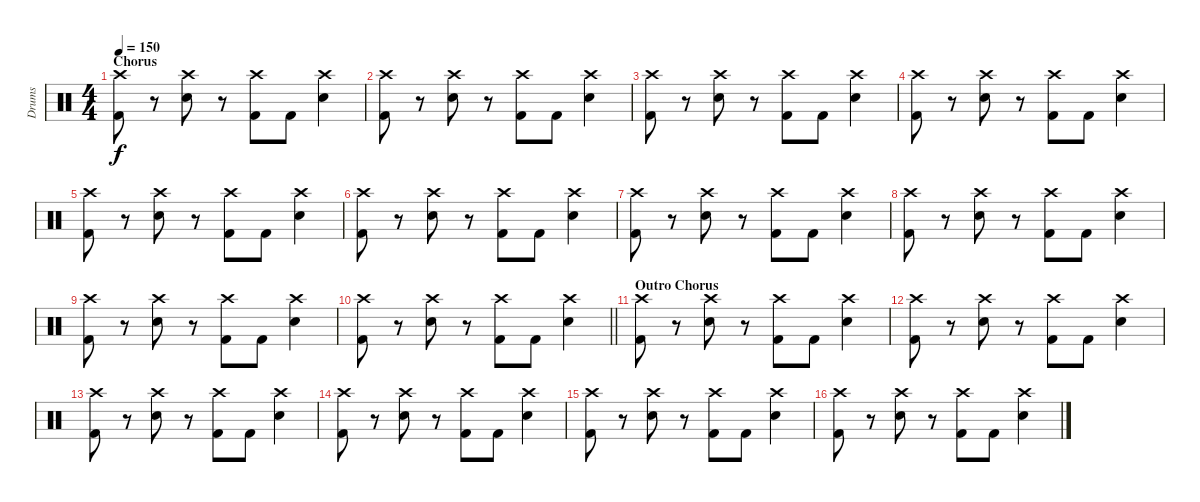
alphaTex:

\track ("Drums" "Drums") {instrument percussion}
\staff {score}
\articulation defaults
\ts (4 4)
\section ("" "Chorus")
\tempo 150
\clef neutral
\ks c
("Crash high (hit)" "Kick (hit) 2").8{dy f} r.8 ("Crash high (hit)" "Snare (hit) 2").8 r.8 ("Crash high (hit)" "Kick (hit) 2").8 "Kick (hit) 2".8 ("Crash high (hit)" "Snare (hit) 2").4 |
("Crash high (hit)" "Kick (hit) 2").8 r.8 ("Crash high (hit)" "Snare (hit) 2").8 r.8 ("Crash high (hit)" "Kick (hit) 2").8 "Kick (hit) 2".8 ("Crash high (hit)" "Snare (hit) 2").4 |
("Crash high (hit)" "Kick (hit) 2").8 r.8 ("Crash high (hit)" "Snare (hit) 2").8 r.8 ("Crash high (hit)" "Kick (hit) 2").8 "Kick (hit) 2".8 ("Crash high (hit)" "Snare (hit) 2").4 |
("Crash high (hit)" "Kick (hit) 2").8 r.8 ("Crash high (hit)" "Snare (hit) 2").8 r.8 ("Crash high (hit)" "Kick (hit) 2").8 "Kick (hit) 2".8 ("Crash high (hit)" "Snare (hit) 2").4 |
("Crash high (hit)" "Kick (hit) 2").8 r.8 ("Crash high (hit)" "Snare (hit) 2").8 r.8 ("Crash high (hit)" "Kick (hit) 2").8 "Kick (hit) 2".8 ("Crash high (hit)" "Snare (hit) 2").4 |
("Crash high (hit)" "Kick (hit) 2").8 r.8 ("Crash high (hit)" "Snare (hit) 2").8 r.8 ("Crash high (hit)" "Kick (hit) 2").8 "Kick (hit) 2".8 ("Crash high (hit)" "Snare (hit) 2").4 |
("Crash high (hit)" "Kick (hit) 2").8 r.8 ("Crash high (hit)" "Snare (hit) 2").8 r.8 ("Crash high (hit)" "Kick (hit) 2").8 "Kick (hit) 2".8 ("Crash high (hit)" "Snare (hit) 2").4 |
("Crash high (hit)" "Kick (hit) 2").8 r.8 ("Crash high (hit)" "Snare (hit) 2").8 r.8 ("Crash high (hit)" "Kick (hit) 2").8 "Kick (hit) 2".8 ("Crash high (hit)" "Snare (hit) 2").4 |
("Crash high (hit)" "Kick (hit) 2").8 r.8 ("Crash high (hit)" "Snare (hit) 2").8 r.8 ("Crash high (hit)" "Kick (hit) 2").8 "Kick (hit) 2".8 ("Crash high (hit)" "Snare (hit) 2").4 |
\barLineRight lightlight
("Crash high (hit)" "Kick (hit) 2").8 r.8 ("Crash high (hit)" "Snare (hit) 2").8 r.8 ("Crash high (hit)" "Kick (hit) 2").8 "Kick (hit) 2".8 ("Crash high (hit)" "Snare (hit) 2").4 |
\section ("" "Outro Chorus")
("Crash high (hit)" "Kick (hit) 2").8 r.8 ("Crash high (hit)" "Snare (hit) 2").8 r.8 ("Crash high (hit)" "Kick (hit) 2").8 "Kick (hit) 2".8 ("Crash high (hit)" "Snare (hit) 2").4 |
("Crash high (hit)" "Kick (hit) 2").8 r.8 ("Crash high (hit)" "Snare (hit) 2").8 r.8 ("Crash high (hit)" "Kick (hit) 2").8 "Kick (hit) 2".8 ("Crash high (hit)" "Snare (hit) 2").4 |
("Crash high (hit)" "Kick (hit) 2").8 r.8 ("Crash high (hit)" "Snare (hit) 2").8 r.8 ("Crash high (hit)" "Kick (hit) 2").8 "Kick (hit) 2".8 ("Crash high (hit)" "Snare (hit) 2").4 |
("Crash high (hit)" "Kick (hit) 2").8 r.8 ("Crash high (hit)" "Snare (hit) 2").8 r.8 ("Crash high (hit)" "Kick (hit) 2").8 "Kick (hit) 2".8 ("Crash high (hit)" "Snare (hit) 2").4 |
("Crash high (hit)" "Kick (hit) 2").8 r.8 ("Crash high (hit)" "Snare (hit) 2").8 r.8 ("Crash high (hit)" "Kick (hit) 2").8 "Kick (hit) 2".8 ("Crash high (hit)" "Snare (hit) 2").4 |
("Crash high (hit)" "Kick (hit) 2").8 r.8 ("Crash high (hit)" "Snare (hit) 2").8 r.8 ("Crash high (hit)" "Kick (hit) 2").8 "Kick (hit) 2".8 ("Crash high (hit)" "Snare (hit) 2").4
